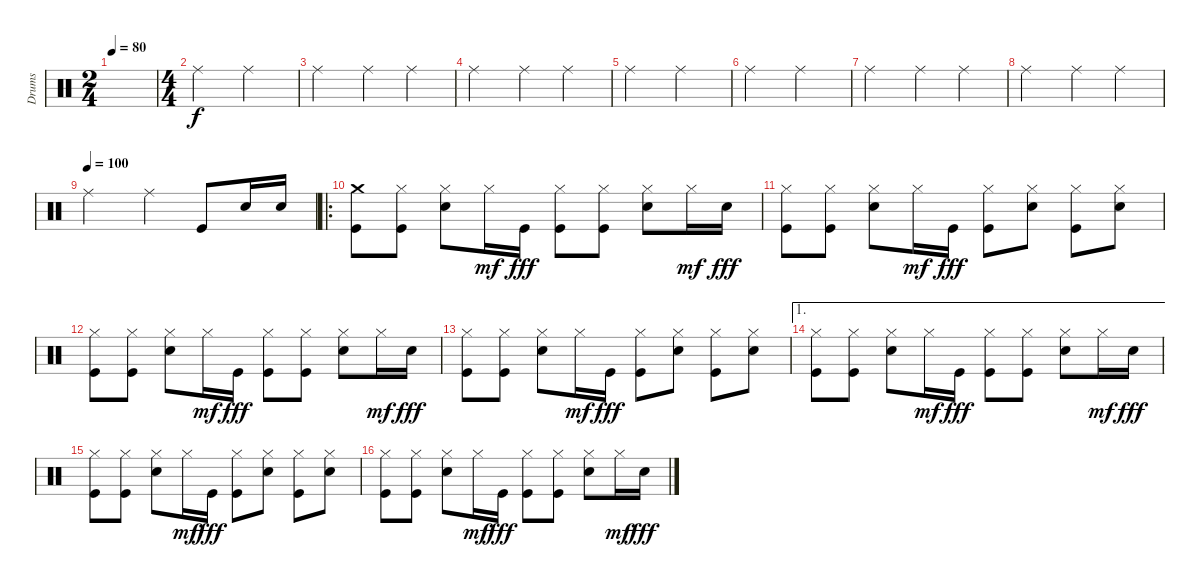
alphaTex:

\track ("Drums" "Drums") {instrument percussion}
\staff {score}
\articulation defaults
\ts (2 4)
\tempo 80
\clef neutral
\ks c
|
\ts (4 4)
"Ride (middle)".2 "Ride (middle)".2 |
"Ride (middle)".2 "Ride (middle)".4 "Ride (middle)".4 |
"Ride (middle)".2 "Ride (middle)".4 "Ride (middle)".4 |
"Ride (middle)".2 "Ride (middle)".2 |
"Ride (middle)".2 "Ride (middle)".2 |
"Ride (middle)".2 "Ride (middle)".4 "Ride (middle)".4 |
"Ride (middle)".2 "Ride (middle)".4 "Ride (middle)".4 |
\tempo (100)
"Ride (middle)".2 "Ride (middle)".4 "Kick (hit)".8 "Electric Snare (hit)".16 "Electric Snare (hit)".16 |
\ro
("Crash medium (hit)" "Kick (hit)").8 ("Hi-Hat (closed)" "Kick (hit)").8 ("Hi-Hat (closed)" "Electric Snare (hit)").8 "Hi-Hat (closed)".16{dy mf} "Kick (hit)".16{dy fff} ("Hi-Hat (closed)" "Kick (hit)").8 ("Hi-Hat (closed)" "Kick (hit)").8 ("Hi-Hat (closed)" "Electric Snare (hit)").8 "Hi-Hat (closed)".16{dy mf} "Electric Snare (hit)".16{dy fff} |
("Hi-Hat (closed)" "Kick (hit)").8 ("Hi-Hat (closed)" "Kick (hit)").8 ("Hi-Hat (closed)" "Electric Snare (hit)").8 "Hi-Hat (closed)".16{dy mf} "Kick (hit)".16{dy fff} ("Hi-Hat (closed)" "Kick (hit)").8 ("Hi-Hat (closed)" "Electric Snare (hit)").8 ("Hi-Hat (closed)" "Kick (hit)").8 ("Hi-Hat (closed)" "Electric Snare (hit)").8 |
("Hi-Hat (closed)" "Kick (hit)").8 ("Hi-Hat (closed)" "Kick (hit)").8 ("Hi-Hat (closed)" "Electric Snare (hit)").8 "Hi-Hat (closed)".16{dy mf} "Kick (hit)".16{dy fff} ("Hi-Hat (closed)" "Kick (hit)").8 ("Hi-Hat (closed)" "Kick (hit)").8 ("Hi-Hat (closed)" "Electric Snare (hit)").8 "Hi-Hat (closed)".16{dy mf} "Electric Snare (hit)".16{dy fff} |
("Hi-Hat (closed)" "Kick (hit)").8 ("Hi-Hat (closed)" "Kick (hit)").8 ("Hi-Hat (closed)" "Electric Snare (hit)").8 "Hi-Hat (closed)".16{dy mf} "Kick (hit)".16{dy fff} ("Hi-Hat (closed)" "Kick (hit)").8 ("Hi-Hat (closed)" "Electric Snare (hit)").8 ("Hi-Hat (closed)" "Kick (hit)").8 ("Hi-Hat (closed)" "Electric Snare (hit)").8 |
\ae 1
("Hi-Hat (closed)" "Kick (hit)").8 ("Hi-Hat (closed)" "Kick (hit)").8 ("Hi-Hat (closed)" "Electric Snare (hit)").8 "Hi-Hat (closed)".16{dy mf} "Kick (hit)".16{dy fff} ("Hi-Hat (closed)" "Kick (hit)").8 ("Hi-Hat (closed)" "Kick (hit)").8 ("Hi-Hat (closed)" "Electric Snare (hit)").8 "Hi-Hat (closed)".16{dy mf} "Electric Snare (hit)".16{dy fff} |
("Hi-Hat (closed)" "Kick (hit)").8 ("Hi-Hat (closed)" "Kick (hit)").8 ("Hi-Hat (closed)" "Electric Snare (hit)").8 "Hi-Hat (closed)".16{dy mf} "Kick (hit)".16{dy fff} ("Hi-Hat (closed)" "Kick (hit)").8 ("Hi-Hat (closed)" "Electric Snare (hit)").8 ("Hi-Hat (closed)" "Kick (hit)").8 ("Hi-Hat (closed)" "Electric Snare (hit)").8 |
("Hi-Hat (closed)" "Kick (hit)").8 ("Hi-Hat (closed)" "Kick (hit)").8 ("Hi-Hat (closed)" "Electric Snare (hit)").8 "Hi-Hat (closed)".16{dy mf} "Kick (hit)".16{dy fff} ("Hi-Hat (closed)" "Kick (hit)").8 ("Hi-Hat (closed)" "Kick (hit)").8 ("Hi-Hat (closed)" "Electric Snare (hit)").8 "Hi-Hat (closed)".16{dy mf} "Electric Snare (hit)".16{dy fff}
